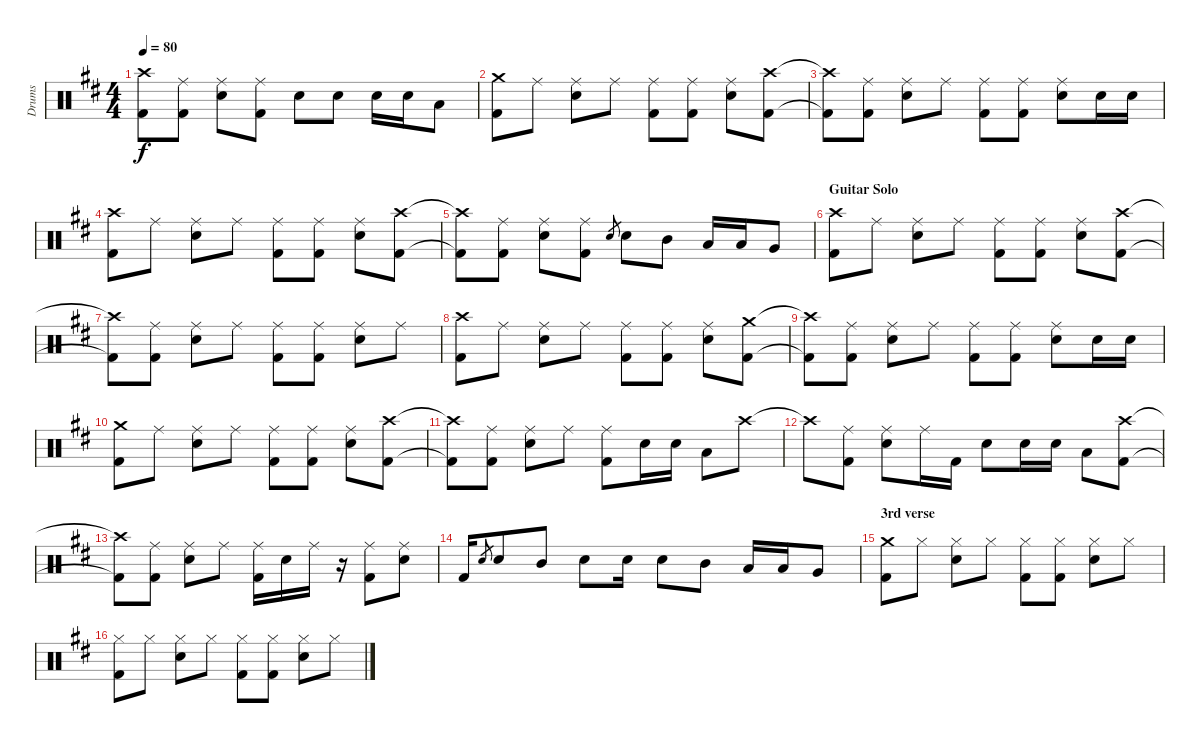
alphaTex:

\track ("Drums" "Drums") {instrument percussion}
\staff {score}
\articulation defaults
\ts (4 4)
\tempo 80
\clef neutral
\ks d
("Crash high (hit)"{t} "Kick (hit) 2"{t}).8{dy f} ("Ride (middle)" "Kick (hit) 2").8 ("Ride (middle)" "Snare (hit) 2").8 ("Ride (middle)" "Kick (hit) 2").8 "Snare (hit) 2".8 "Snare (hit) 2".8 "Snare (hit) 2".16 "Snare (hit) 2".16 "Low Tom (hit)".8 |
("Crash medium (hit)" "Kick (hit) 2").8 "Ride (middle)".8 ("Ride (middle)" "Snare (hit) 2").8 "Ride (middle)".8 ("Ride (middle)" "Kick (hit) 2").8 ("Ride (middle)" "Kick (hit) 2").8 ("Ride (middle)" "Snare (hit) 2").8 ("Crash high (hit)" "Kick (hit) 2").8 |
("Crash high (hit)"{t} "Kick (hit) 2"{t}).8 ("Ride (middle)" "Kick (hit) 2").8 ("Ride (middle)" "Snare (hit) 2").8 "Ride (middle)".8 ("Ride (middle)" "Kick (hit) 2").8 ("Ride (middle)" "Kick (hit) 2").8 ("Ride (middle)" "Snare (hit) 2").8 "Snare (hit) 2".16 "Snare (hit) 2".16 |
("Crash high (hit)" "Kick (hit) 2").8 "Ride (middle)".8 ("Ride (middle)" "Snare (hit) 2").8 "Ride (middle)".8 ("Ride (middle)" "Kick (hit) 2").8 ("Ride (middle)" "Kick (hit) 2").8 ("Ride (middle)" "Snare (hit) 2").8 ("Crash high (hit)" "Kick (hit) 2").8 |
("Crash high (hit)"{t} "Kick (hit) 2"{t}).8 ("Ride (middle)" "Kick (hit) 2").8 ("Ride (middle)" "Snare (hit) 2").8 ("Ride (middle)" "Kick (hit) 2").8 "Snare (hit) 2".8{gr} "Snare (hit) 2".8 "Mid Tom (hit)".8 "Low Tom (hit)".16 "Low Tom (hit)".16 "Very Low Tom (hit)".8 |
\section ("" "Guitar Solo")
("Crash high (hit)" "Kick (hit) 2").8 "Ride (middle)".8 ("Ride (middle)" "Snare (hit) 2").8 "Ride (middle)".8 ("Ride (middle)" "Kick (hit) 2").8 ("Ride (middle)" "Kick (hit) 2").8 ("Ride (middle)" "Snare (hit) 2").8 ("Crash high (hit)" "Kick (hit) 2").8 |
("Crash high (hit)"{t} "Kick (hit) 2"{t}).8 ("Ride (middle)" "Kick (hit) 2").8 ("Ride (middle)" "Snare (hit) 2").8 "Ride (middle)".8 ("Ride (middle)" "Kick (hit) 2").8 ("Ride (middle)" "Kick (hit) 2").8 ("Ride (middle)" "Snare (hit) 2").8 "Ride (middle)".8 |
("Crash high (hit)" "Kick (hit) 2").8 "Ride (middle)".8 ("Ride (middle)" "Snare (hit) 2").8 "Ride (middle)".8 ("Ride (middle)" "Kick (hit) 2").8 ("Ride (middle)" "Kick (hit) 2").8 ("Ride (middle)" "Snare (hit) 2").8 ("Crash medium (hit)" "Kick (hit) 2").8 |
("Crash high (hit)"{t} "Kick (hit) 2"{t}).8 ("Ride (middle)" "Kick (hit) 2").8 ("Ride (middle)" "Snare (hit) 2").8 "Ride (middle)".8 ("Ride (middle)" "Kick (hit) 2").8 ("Ride (middle)" "Kick (hit) 2").8 ("Ride (middle)" "Snare (hit) 2").8 "Snare (hit) 2".16 "Snare (hit) 2".16 |
("Crash medium (hit)" "Kick (hit) 2").8 "Ride (middle)".8 ("Ride (middle)" "Snare (hit) 2").8 "Ride (middle)".8 ("Ride (middle)" "Kick (hit) 2").8 ("Ride (middle)" "Kick (hit) 2").8 ("Ride (middle)" "Snare (hit) 2").8 ("Crash high (hit)" "Kick (hit) 2").8 |
("Crash high (hit)"{t} "Kick (hit) 2"{t}).8 ("Ride (middle)" "Kick (hit) 2").8 ("Ride (middle)" "Snare (hit) 2").8 "Ride (middle)".8 ("Ride (middle)" "Kick (hit) 2").8 "Snare (hit) 2".16 "Snare (hit) 2".16 "Low Tom (hit)".8 "Crash high (hit)".8 |
"Crash high (hit)"{t}.8 ("Ride (middle)" "Kick (hit) 2").8 ("Ride (middle)" "Snare (hit) 2").8 "Ride (middle)".16 "Kick (hit) 2".16 "Snare (hit) 2".8 "Snare (hit) 2".16 "Snare (hit) 2".16 "Low Tom (hit)".8 ("Crash high (hit)" "Kick (hit) 2").8 |
("Crash high (hit)"{t} "Kick (hit) 2"{t}).8 ("Ride (middle)" "Kick (hit) 2").8 ("Ride (middle)" "Snare (hit) 2").8 "Ride (middle)".8 ("Ride (middle)" "Kick (hit) 2").16 "Snare (hit) 2".16 "Ride (middle)".16 r.16 ("Ride (middle)" "Kick (hit) 2").8 ("Ride (middle)" "Snare (hit) 2").8 |
"Kick (hit) 2".16 "Snare (hit) 2".8{gr} "Snare (hit) 2".8 "Mid Tom (hit)".8 "Snare (hit) 2".8 "Snare (hit) 2".16 "Snare (hit) 2".8 "Mid Tom (hit)".8 "Low Tom (hit)".16 "Low Tom (hit)".16 "Very Low Tom (hit)".8 |
\section ("" "3rd verse")
("Crash medium (hit)" "Kick (hit) 2").8 "Hi-Hat (closed)".8 ("Hi-Hat (closed)" "Snare (hit) 2").8 "Hi-Hat (closed)".8 ("Hi-Hat (closed)" "Kick (hit) 2").8 ("Hi-Hat (closed)" "Kick (hit) 2").8 ("Hi-Hat (closed)" "Snare (hit) 2").8 "Hi-Hat (closed)".8 |
("Hi-Hat (closed)" "Kick (hit) 2").8 "Hi-Hat (closed)".8 ("Hi-Hat (closed)" "Snare (hit) 2").8 "Hi-Hat (closed)".8 ("Hi-Hat (closed)" "Kick (hit) 2").8 ("Hi-Hat (closed)" "Kick (hit) 2").8 ("Hi-Hat (closed)" "Snare (hit) 2").8 "Hi-Hat (closed)".8
